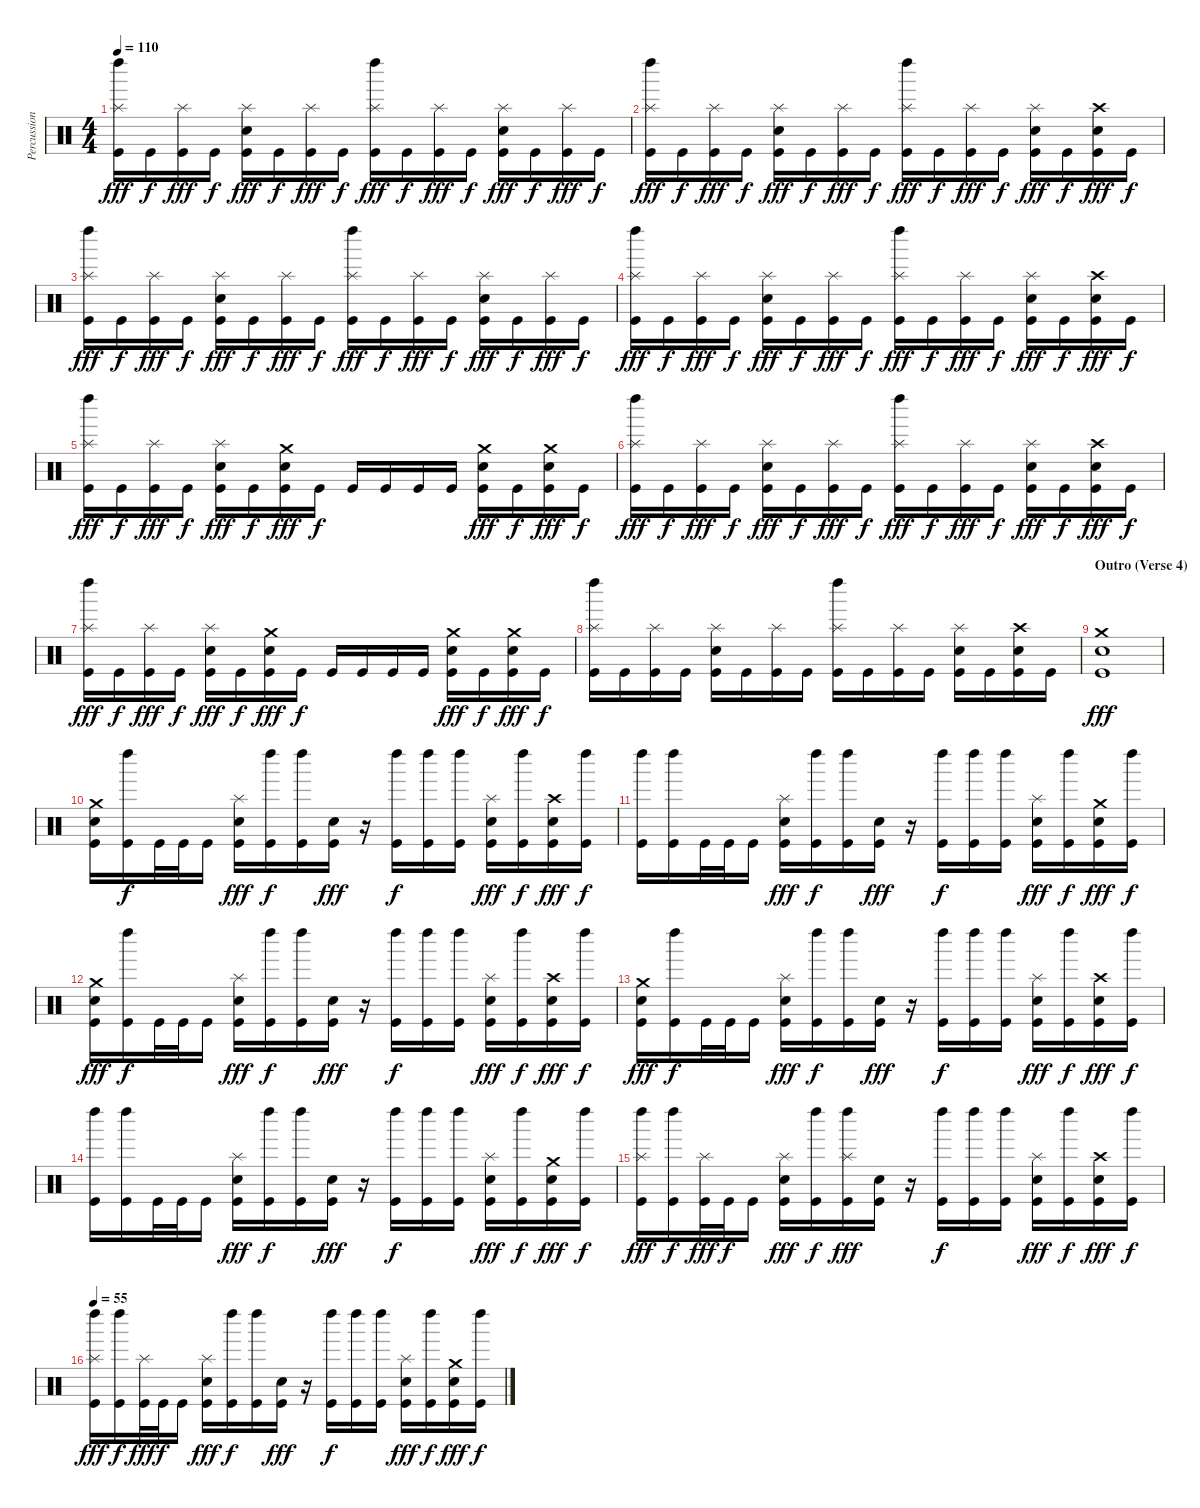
\track ("Percussions" "Percussion") {instrument percussion}
\staff {score}
\articulation defaults
\ts (4 4)
\tempo 110
\clef neutral
\ks c
("Kick (hit)" "Splash (hit)" "Left Maraca (hit)").16{dy fff} "Kick (hit)".16{dy f} ("Kick (hit)" "Splash (hit)").16{dy fff} "Kick (hit)".16{dy f} ("Kick (hit)" "Splash (hit)" "Electric Snare (hit)").16{dy fff} "Kick (hit)".16{dy f} ("Kick (hit)" "Splash (hit)").16{dy fff} "Kick (hit)".16{dy f} ("Kick (hit)" "Splash (hit)" "Left Maraca (hit)").16{dy fff} "Kick (hit)".16{dy f} ("Kick (hit)" "Splash (hit)").16{dy fff} "Kick (hit)".16{dy f} ("Kick (hit)" "Splash (hit)" "Electric Snare (hit)").16{dy fff} "Kick (hit)".16{dy f} ("Kick (hit)" "Splash (hit)").16{dy fff} "Kick (hit)".16{dy f} |
("Kick (hit)" "Splash (hit)" "Left Maraca (hit)").16{dy fff} "Kick (hit)".16{dy f} ("Kick (hit)" "Splash (hit)").16{dy fff} "Kick (hit)".16{dy f} ("Kick (hit)" "Splash (hit)" "Electric Snare (hit)").16{dy fff} "Kick (hit)".16{dy f} ("Kick (hit)" "Splash (hit)").16{dy fff} "Kick (hit)".16{dy f} ("Kick (hit)" "Splash (hit)" "Left Maraca (hit)").16{dy fff} "Kick (hit)".16{dy f} ("Kick (hit)" "Splash (hit)").16{dy fff} "Kick (hit)".16{dy f} ("Kick (hit)" "Splash (hit)" "Electric Snare (hit)").16{dy fff} "Kick (hit)".16{dy f} ("Kick (hit)" "Crash high (hit)" "Electric Snare (hit)").16{dy fff} "Kick (hit)".16{dy f} |
("Kick (hit)" "Splash (hit)" "Left Maraca (hit)").16{dy fff} "Kick (hit)".16{dy f} ("Kick (hit)" "Splash (hit)").16{dy fff} "Kick (hit)".16{dy f} ("Kick (hit)" "Splash (hit)" "Electric Snare (hit)").16{dy fff} "Kick (hit)".16{dy f} ("Kick (hit)" "Splash (hit)").16{dy fff} "Kick (hit)".16{dy f} ("Kick (hit)" "Splash (hit)" "Left Maraca (hit)").16{dy fff} "Kick (hit)".16{dy f} ("Kick (hit)" "Splash (hit)").16{dy fff} "Kick (hit)".16{dy f} ("Kick (hit)" "Splash (hit)" "Electric Snare (hit)").16{dy fff} "Kick (hit)".16{dy f} ("Kick (hit)" "Splash (hit)").16{dy fff} "Kick (hit)".16{dy f} |
("Kick (hit)" "Splash (hit)" "Left Maraca (hit)").16{dy fff} "Kick (hit)".16{dy f} ("Kick (hit)" "Splash (hit)").16{dy fff} "Kick (hit)".16{dy f} ("Kick (hit)" "Splash (hit)" "Electric Snare (hit)").16{dy fff} "Kick (hit)".16{dy f} ("Kick (hit)" "Splash (hit)").16{dy fff} "Kick (hit)".16{dy f} ("Kick (hit)" "Splash (hit)" "Left Maraca (hit)").16{dy fff} "Kick (hit)".16{dy f} ("Kick (hit)" "Splash (hit)").16{dy fff} "Kick (hit)".16{dy f} ("Kick (hit)" "Splash (hit)" "Electric Snare (hit)").16{dy fff} "Kick (hit)".16{dy f} ("Kick (hit)" "Crash high (hit)" "Electric Snare (hit)").16{dy fff} "Kick (hit)".16{dy f} |
("Kick (hit)" "Splash (hit)" "Left Maraca (hit)").16{dy fff} "Kick (hit)".16{dy f} ("Kick (hit)" "Splash (hit)").16{dy fff} "Kick (hit)".16{dy f} ("Kick (hit)" "Splash (hit)" "Electric Snare (hit)").16{dy fff} "Kick (hit)".16{dy f} ("Kick (hit)" "Electric Snare (hit)" "Crash medium (hit)").16{dy fff} "Kick (hit)".16{dy f} "Kick (hit)".16 "Kick (hit)".16 "Kick (hit)".16 "Kick (hit)".16 ("Kick (hit)" "Electric Snare (hit)" "Crash medium (hit)").16{dy fff} "Kick (hit)".16{dy f} ("Kick (hit)" "Electric Snare (hit)" "Crash medium (hit)").16{dy fff} "Kick (hit)".16{dy f} |
("Kick (hit)" "Splash (hit)" "Left Maraca (hit)").16{dy fff} "Kick (hit)".16{dy f} ("Kick (hit)" "Splash (hit)").16{dy fff} "Kick (hit)".16{dy f} ("Kick (hit)" "Splash (hit)" "Electric Snare (hit)").16{dy fff} "Kick (hit)".16{dy f} ("Kick (hit)" "Splash (hit)").16{dy fff} "Kick (hit)".16{dy f} ("Kick (hit)" "Splash (hit)" "Left Maraca (hit)").16{dy fff} "Kick (hit)".16{dy f} ("Kick (hit)" "Splash (hit)").16{dy fff} "Kick (hit)".16{dy f} ("Kick (hit)" "Splash (hit)" "Electric Snare (hit)").16{dy fff} "Kick (hit)".16{dy f} ("Kick (hit)" "Crash high (hit)" "Electric Snare (hit)").16{dy fff} "Kick (hit)".16{dy f} |
("Kick (hit)" "Splash (hit)" "Left Maraca (hit)").16{dy fff} "Kick (hit)".16{dy f} ("Kick (hit)" "Splash (hit)").16{dy fff} "Kick (hit)".16{dy f} ("Kick (hit)" "Splash (hit)" "Electric Snare (hit)").16{dy fff} "Kick (hit)".16{dy f} ("Kick (hit)" "Electric Snare (hit)" "Crash medium (hit)").16{dy fff} "Kick (hit)".16{dy f} "Kick (hit)".16 "Kick (hit)".16 "Kick (hit)".16 "Kick (hit)".16 ("Kick (hit)" "Electric Snare (hit)" "Crash medium (hit)").16{dy fff} "Kick (hit)".16{dy f} ("Kick (hit)" "Electric Snare (hit)" "Crash medium (hit)").16{dy fff} "Kick (hit)".16{dy f} |
("Kick (hit)" "Splash (hit)" "Left Maraca (hit)").16 "Kick (hit)".16 ("Kick (hit)" "Splash (hit)").16 "Kick (hit)".16 ("Kick (hit)" "Splash (hit)" "Electric Snare (hit)").16 "Kick (hit)".16 ("Kick (hit)" "Splash (hit)").16 "Kick (hit)".16 ("Kick (hit)" "Splash (hit)" "Left Maraca (hit)").16 "Kick (hit)".16 ("Kick (hit)" "Splash (hit)").16 "Kick (hit)".16 ("Kick (hit)" "Splash (hit)" "Electric Snare (hit)").16 "Kick (hit)".16 ("Kick (hit)" "Crash high (hit)" "Electric Snare (hit)").16 "Kick (hit)".16 |
\section ("" "Outro (Verse 4)")
("Kick (hit)" "Electric Snare (hit)" "Crash medium (hit)").1{dy fff} |
("Kick (hit)" "Electric Snare (hit)" "Crash medium (hit)").16 ("Kick (hit)" "Left Maraca (hit)").16{dy f} "Kick (hit)".32 "Kick (hit)".32 "Kick (hit)".16 ("Kick (hit)" "Electric Snare (hit)" "Splash (hit)").16{dy fff} ("Kick (hit)" "Left Maraca (hit)").16{dy f} ("Kick (hit)" "Left Maraca (hit)").16 ("Kick (hit)" "Electric Snare (hit)").16{dy fff} r.16 ("Kick (hit)" "Left Maraca (hit)").16{dy f} ("Kick (hit)" "Left Maraca (hit)").16 ("Kick (hit)" "Left Maraca (hit)").16 ("Kick (hit)" "Electric Snare (hit)" "Splash (hit)").16{dy fff} ("Kick (hit)" "Left Maraca (hit)").16{dy f} ("Kick (hit)" "Electric Snare (hit)" "Crash high (hit)").16{dy fff} ("Kick (hit)" "Left Maraca (hit)").16{dy f} |
("Kick (hit)" "Left Maraca (hit)").16 ("Kick (hit)" "Left Maraca (hit)").16 "Kick (hit)".32 "Kick (hit)".32 "Kick (hit)".16 ("Kick (hit)" "Electric Snare (hit)" "Splash (hit)").16{dy fff} ("Kick (hit)" "Left Maraca (hit)").16{dy f} ("Kick (hit)" "Left Maraca (hit)").16 ("Kick (hit)" "Electric Snare (hit)").16{dy fff} r.16 ("Kick (hit)" "Left Maraca (hit)").16{dy f} ("Kick (hit)" "Left Maraca (hit)").16 ("Kick (hit)" "Left Maraca (hit)").16 ("Kick (hit)" "Electric Snare (hit)" "Splash (hit)").16{dy fff} ("Kick (hit)" "Left Maraca (hit)").16{dy f} ("Kick (hit)" "Electric Snare (hit)" "Crash medium (hit)").16{dy fff} ("Kick (hit)" "Left Maraca (hit)").16{dy f} |
("Kick (hit)" "Electric Snare (hit)" "Crash medium (hit)").16{dy fff} ("Kick (hit)" "Left Maraca (hit)").16{dy f} "Kick (hit)".32 "Kick (hit)".32 "Kick (hit)".16 ("Kick (hit)" "Electric Snare (hit)" "Splash (hit)").16{dy fff} ("Kick (hit)" "Left Maraca (hit)").16{dy f} ("Kick (hit)" "Left Maraca (hit)").16 ("Kick (hit)" "Electric Snare (hit)").16{dy fff} r.16 ("Kick (hit)" "Left Maraca (hit)").16{dy f} ("Kick (hit)" "Left Maraca (hit)").16 ("Kick (hit)" "Left Maraca (hit)").16 ("Kick (hit)" "Electric Snare (hit)" "Splash (hit)").16{dy fff} ("Kick (hit)" "Left Maraca (hit)").16{dy f} ("Kick (hit)" "Electric Snare (hit)" "Crash high (hit)").16{dy fff} ("Kick (hit)" "Left Maraca (hit)").16{dy f} |
("Kick (hit)" "Electric Snare (hit)" "Crash medium (hit)").16{dy fff} ("Kick (hit)" "Left Maraca (hit)").16{dy f} "Kick (hit)".32 "Kick (hit)".32 "Kick (hit)".16 ("Kick (hit)" "Electric Snare (hit)" "Splash (hit)").16{dy fff} ("Kick (hit)" "Left Maraca (hit)").16{dy f} ("Kick (hit)" "Left Maraca (hit)").16 ("Kick (hit)" "Electric Snare (hit)").16{dy fff} r.16 ("Kick (hit)" "Left Maraca (hit)").16{dy f} ("Kick (hit)" "Left Maraca (hit)").16 ("Kick (hit)" "Left Maraca (hit)").16 ("Kick (hit)" "Electric Snare (hit)" "Splash (hit)").16{dy fff} ("Kick (hit)" "Left Maraca (hit)").16{dy f} ("Kick (hit)" "Electric Snare (hit)" "Crash high (hit)").16{dy fff} ("Kick (hit)" "Left Maraca (hit)").16{dy f} |
("Kick (hit)" "Left Maraca (hit)").16 ("Kick (hit)" "Left Maraca (hit)").16 "Kick (hit)".32 "Kick (hit)".32 "Kick (hit)".16 ("Kick (hit)" "Electric Snare (hit)" "Splash (hit)").16{dy fff} ("Kick (hit)" "Left Maraca (hit)").16{dy f} ("Kick (hit)" "Left Maraca (hit)").16 ("Kick (hit)" "Electric Snare (hit)").16{dy fff} r.16 ("Kick (hit)" "Left Maraca (hit)").16{dy f} ("Kick (hit)" "Left Maraca (hit)").16 ("Kick (hit)" "Left Maraca (hit)").16 ("Kick (hit)" "Electric Snare (hit)" "Splash (hit)").16{dy fff} ("Kick (hit)" "Left Maraca (hit)").16{dy f} ("Kick (hit)" "Electric Snare (hit)" "Crash medium (hit)").16{dy fff} ("Kick (hit)" "Left Maraca (hit)").16{dy f} |
("Kick (hit)" "Left Maraca (hit)" "Splash (hit)").16{dy fff} ("Kick (hit)" "Left Maraca (hit)").16{dy f} ("Kick (hit)" "Splash (hit)").32{dy fff} "Kick (hit)".32{dy f} "Kick (hit)".16 ("Kick (hit)" "Electric Snare (hit)" "Splash (hit)").16{dy fff} ("Kick (hit)" "Left Maraca (hit)").16{dy f} ("Kick (hit)" "Left Maraca (hit)" "Splash (hit)").16{dy fff} ("Kick (hit)" "Electric Snare (hit)").16 r.16 ("Kick (hit)" "Left Maraca (hit)").16{dy f} ("Kick (hit)" "Left Maraca (hit)").16 ("Kick (hit)" "Left Maraca (hit)").16 ("Kick (hit)" "Electric Snare (hit)" "Splash (hit)").16{dy fff} ("Kick (hit)" "Left Maraca (hit)").16{dy f} ("Kick (hit)" "Electric Snare (hit)" "Crash high (hit)").16{dy fff} ("Kick (hit)" "Left Maraca (hit)").16{dy f} |
\tempo 55
("Kick (hit)" "Left Maraca (hit)" "Splash (hit)").16{dy fff} ("Kick (hit)" "Left Maraca (hit)").16{dy f} ("Kick (hit)" "Splash (hit)").32{dy fff} "Kick (hit)".32{dy f} "Kick (hit)".16 ("Kick (hit)" "Electric Snare (hit)" "Splash (hit)").16{dy fff} ("Kick (hit)" "Left Maraca (hit)").16{dy f} ("Kick (hit)" "Left Maraca (hit)").16 ("Kick (hit)" "Electric Snare (hit)").16{dy fff} r.16 ("Kick (hit)" "Left Maraca (hit)").16{dy f} ("Kick (hit)" "Left Maraca (hit)").16 ("Kick (hit)" "Left Maraca (hit)").16 ("Kick (hit)" "Electric Snare (hit)" "Splash (hit)").16{dy fff} ("Kick (hit)" "Left Maraca (hit)").16{dy f} ("Kick (hit)" "Electric Snare (hit)" "Crash medium (hit)").16{dy fff} ("Kick (hit)" "Left Maraca (hit)").16{dy f}
